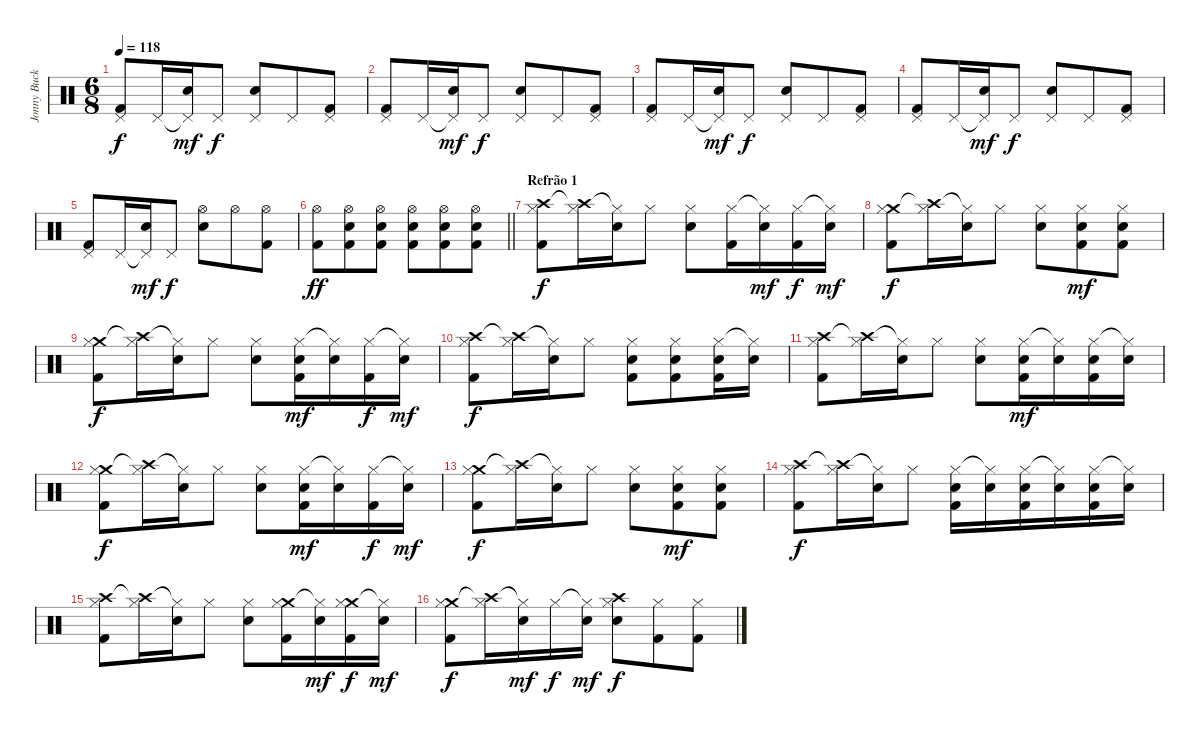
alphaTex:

\track ("Jonny Buckland (batera)" "Jonny Buck") {instrument percussion}
\staff {score}
\articulation defaults
\ts (6 8)
\tempo 118
\clef neutral
\ks c
("Pedal Hi-Hat (hit)" "Kick (hit) 2").8{dy f} "Pedal Hi-Hat (hit)".16 ("Pedal Hi-Hat (hit)"{t} "Snare (hit) 2").16{dy mf} "Pedal Hi-Hat (hit)".8{dy f} ("Pedal Hi-Hat (hit)" "Electric Snare (hit)").8 "Pedal Hi-Hat (hit)".8 ("Pedal Hi-Hat (hit)" "Kick (hit) 2").8 |
("Pedal Hi-Hat (hit)" "Kick (hit) 2").8 "Pedal Hi-Hat (hit)".16 ("Pedal Hi-Hat (hit)"{t} "Snare (hit) 2").16{dy mf} "Pedal Hi-Hat (hit)".8{dy f} ("Pedal Hi-Hat (hit)" "Electric Snare (hit)").8 "Pedal Hi-Hat (hit)".8 ("Pedal Hi-Hat (hit)" "Kick (hit) 2").8 |
("Pedal Hi-Hat (hit)" "Kick (hit) 2").8 "Pedal Hi-Hat (hit)".16 ("Pedal Hi-Hat (hit)"{t} "Snare (hit) 2").16{dy mf} "Pedal Hi-Hat (hit)".8{dy f} ("Pedal Hi-Hat (hit)" "Electric Snare (hit)").8 "Pedal Hi-Hat (hit)".8 ("Pedal Hi-Hat (hit)" "Kick (hit) 2").8 |
("Pedal Hi-Hat (hit)" "Kick (hit) 2").8 "Pedal Hi-Hat (hit)".16 ("Pedal Hi-Hat (hit)"{t} "Snare (hit) 2").16{dy mf} "Pedal Hi-Hat (hit)".8{dy f} ("Pedal Hi-Hat (hit)" "Electric Snare (hit)").8 "Pedal Hi-Hat (hit)".8 ("Pedal Hi-Hat (hit)" "Kick (hit) 2").8 |
("Pedal Hi-Hat (hit)" "Kick (hit) 2").8 "Pedal Hi-Hat (hit)".16 ("Pedal Hi-Hat (hit)"{t} "Snare (hit) 2").16{dy mf} "Pedal Hi-Hat (hit)".8{dy f} ("Hi-Hat (open)" "Electric Snare (hit)").8 "Hi-Hat (open)".8 ("Hi-Hat (open)" "Kick (hit) 2").8 |
\barLineRight lightlight
("Hi-Hat (open)" "Kick (hit) 2").8{dy ff} ("Hi-Hat (open)" "Electric Snare (hit)" "Kick (hit) 2").8 ("Hi-Hat (open)" "Electric Snare (hit)" "Kick (hit) 2").8 ("Hi-Hat (open)" "Electric Snare (hit)" "Kick (hit) 2").8 ("Hi-Hat (open)" "Electric Snare (hit)" "Kick (hit) 2").8 ("Hi-Hat (open)" "Electric Snare (hit)" "Kick (hit) 2").8 |
\section ("" "Refrão 1")
("Crash high (hit)" "Hi-Hat (closed)" "Kick (hit) 2").8{dy f} ("Crash high (hit)"{t} "Hi-Hat (closed)").16 ("Hi-Hat (closed)"{t} "Electric Snare (hit)").16 "Hi-Hat (closed)".8 ("Hi-Hat (closed)" "Electric Snare (hit)").8 ("Hi-Hat (closed)" "Kick (hit) 2").16 ("Hi-Hat (closed)"{t} "Snare (hit) 2").16{dy mf} ("Hi-Hat (closed)" "Kick (hit) 2").16{dy f} ("Hi-Hat (closed)"{t} "Snare (hit) 2").16{dy mf} |
("Crash medium (hit)" "Hi-Hat (closed)" "Kick (hit) 2").8{dy f} ("Crash high (hit)"{t} "Hi-Hat (closed)").16 ("Hi-Hat (closed)"{t} "Electric Snare (hit)").16 "Hi-Hat (closed)".8 ("Hi-Hat (closed)" "Electric Snare (hit)").8 ("Hi-Hat (closed)" "Snare (hit) 2" "Kick (hit) 2").8{dy mf} ("Hi-Hat (closed)" "Snare (hit) 2" "Kick (hit) 2").8 |
("Crash medium (hit)" "Hi-Hat (closed)" "Kick (hit) 2").8{dy f} ("Crash high (hit)"{t} "Hi-Hat (closed)").16 ("Hi-Hat (closed)"{t} "Electric Snare (hit)").16 "Hi-Hat (closed)".8 ("Hi-Hat (closed)" "Electric Snare (hit)").8 ("Hi-Hat (closed)" "Snare (hit) 2" "Kick (hit) 2").16{dy mf} ("Hi-Hat (closed)"{t} "Snare (hit) 2").16 ("Hi-Hat (closed)" "Kick (hit) 2").16{dy f} ("Hi-Hat (closed)"{t} "Snare (hit) 2").16{dy mf} |
("Crash high (hit)" "Hi-Hat (closed)" "Kick (hit) 2").8{dy f} ("Crash high (hit)"{t} "Hi-Hat (closed)").16 ("Hi-Hat (closed)"{t} "Electric Snare (hit)").16 "Hi-Hat (closed)".8 ("Hi-Hat (closed)" "Electric Snare (hit)" "Kick (hit) 2").8 ("Hi-Hat (closed)" "Electric Snare (hit)" "Kick (hit) 2").8 ("Hi-Hat (closed)" "Electric Snare (hit)" "Kick (hit) 2").16 ("Hi-Hat (closed)"{t} "Electric Snare (hit)").16 |
("Crash high (hit)" "Hi-Hat (closed)" "Kick (hit) 2").8 ("Crash high (hit)"{t} "Hi-Hat (closed)").16 ("Hi-Hat (closed)"{t} "Electric Snare (hit)").16 "Hi-Hat (closed)".8 ("Hi-Hat (closed)" "Electric Snare (hit)").8 ("Hi-Hat (closed)" "Snare (hit) 2" "Kick (hit) 2").16{dy mf} ("Hi-Hat (closed)"{t} "Snare (hit) 2").16 ("Hi-Hat (closed)" "Snare (hit) 2" "Kick (hit) 2").16 ("Hi-Hat (closed)"{t} "Snare (hit) 2").16 |
("Crash medium (hit)" "Hi-Hat (closed)" "Kick (hit) 2").8{dy f} ("Crash high (hit)"{t} "Hi-Hat (closed)").16 ("Hi-Hat (closed)"{t} "Electric Snare (hit)").16 "Hi-Hat (closed)".8 ("Hi-Hat (closed)" "Electric Snare (hit)").8 ("Hi-Hat (closed)" "Snare (hit) 2" "Kick (hit) 2").16{dy mf} ("Hi-Hat (closed)"{t} "Snare (hit) 2").16 ("Hi-Hat (closed)" "Kick (hit) 2").16{dy f} ("Hi-Hat (closed)"{t} "Snare (hit) 2").16{dy mf} |
("Crash medium (hit)" "Hi-Hat (closed)" "Kick (hit) 2").8{dy f} ("Crash high (hit)"{t} "Hi-Hat (closed)").16 ("Hi-Hat (closed)"{t} "Electric Snare (hit)").16 "Hi-Hat (closed)".8 ("Hi-Hat (closed)" "Electric Snare (hit)").8 ("Hi-Hat (closed)" "Snare (hit) 2" "Kick (hit) 2").8{dy mf} ("Hi-Hat (closed)" "Snare (hit) 2" "Kick (hit) 2").8 |
("Crash high (hit)" "Hi-Hat (closed)" "Kick (hit) 2").8{dy f} ("Crash high (hit)"{t} "Hi-Hat (closed)").16 ("Hi-Hat (closed)"{t} "Electric Snare (hit)").16 "Hi-Hat (closed)".8 ("Hi-Hat (closed)" "Electric Snare (hit)" "Kick (hit) 2").16 ("Hi-Hat (closed)"{t} "Electric Snare (hit)").16 ("Hi-Hat (closed)" "Electric Snare (hit)" "Kick (hit) 2").16 ("Hi-Hat (closed)"{t} "Electric Snare (hit)").16 ("Hi-Hat (closed)" "Snare (hit) 2" "Kick (hit) 2").16 ("Hi-Hat (closed)"{t} "Snare (hit) 2").16 |
("Crash high (hit)" "Hi-Hat (closed)" "Kick (hit) 2").8 ("Crash high (hit)"{t} "Hi-Hat (closed)").16 ("Hi-Hat (closed)"{t} "Electric Snare (hit)").16 "Hi-Hat (closed)".8 ("Hi-Hat (closed)" "Electric Snare (hit)").8 ("Crash medium (hit)" "Hi-Hat (closed)" "Kick (hit) 2").16 ("Hi-Hat (closed)"{t} "Snare (hit) 2").16{dy mf} ("Crash medium (hit)" "Hi-Hat (closed)" "Kick (hit) 2").16{dy f} ("Hi-Hat (closed)"{t} "Snare (hit) 2").16{dy mf} |
("Crash medium (hit)" "Hi-Hat (closed)" "Kick (hit) 2").8{dy f} ("Crash high (hit)"{t} "Hi-Hat (closed)").16 ("Hi-Hat (closed)"{t} "Snare (hit) 2").16{dy mf} "Hi-Hat (closed)".16{dy f} ("Hi-Hat (closed)"{t} "Snare (hit) 2").16{dy mf} ("Crash high (hit)" "Hi-Hat (closed)" "Electric Snare (hit)").8{dy f} ("Hi-Hat (closed)" "Kick (hit) 2").8 ("Hi-Hat (closed)" "Kick (hit) 2").8
